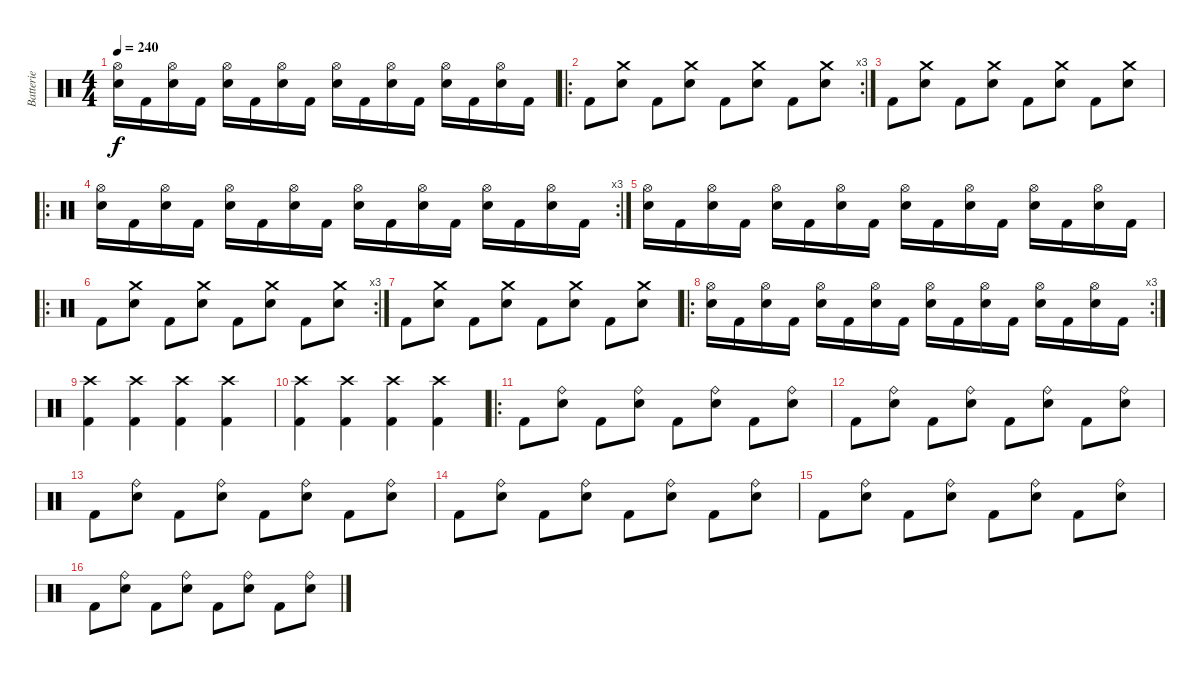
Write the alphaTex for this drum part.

\track ("Batterie" "Batterie") {instrument percussion}
\staff {score}
\articulation defaults
\ts (4 4)
\tempo 240
\clef neutral
\ks c
("Hi-Hat (open)" "Snare (hit) 2").16{dy f} "Kick (hit) 2".16 ("Hi-Hat (open)" "Snare (hit) 2").16 "Kick (hit) 2".16 ("Hi-Hat (open)" "Snare (hit) 2").16 "Kick (hit) 2".16 ("Hi-Hat (open)" "Snare (hit) 2").16 "Kick (hit) 2".16 ("Hi-Hat (open)" "Snare (hit) 2").16 "Kick (hit) 2".16 ("Hi-Hat (open)" "Snare (hit) 2").16 "Kick (hit) 2".16 ("Hi-Hat (open)" "Snare (hit) 2").16 "Kick (hit) 2".16 ("Hi-Hat (open)" "Snare (hit) 2").16 "Kick (hit) 2".16 |
\ro
\rc 3 "Kick (hit) 2".8
("Crash medium (hit)" "Snare (hit) 2").8 "Kick (hit) 2".8 ("Crash medium (hit)" "Snare (hit) 2").8 "Kick (hit) 2".8 ("Crash medium (hit)" "Snare (hit) 2").8 "Kick (hit) 2".8 ("Crash medium (hit)" "Snare (hit) 2").8 |
"Kick (hit) 2".8 ("Crash medium (hit)" "Snare (hit) 2").8 "Kick (hit) 2".8 ("Crash medium (hit)" "Snare (hit) 2").8 "Kick (hit) 2".8 ("Crash medium (hit)" "Snare (hit) 2").8 "Kick (hit) 2".8 ("Crash medium (hit)" "Snare (hit) 2").8 |
\ro
\rc 3
("Hi-Hat (open)" "Snare (hit) 2").16 "Kick (hit) 2".16 ("Hi-Hat (open)" "Snare (hit) 2").16 "Kick (hit) 2".16 ("Hi-Hat (open)" "Snare (hit) 2").16 "Kick (hit) 2".16 ("Hi-Hat (open)" "Snare (hit) 2").16 "Kick (hit) 2".16 ("Hi-Hat (open)" "Snare (hit) 2").16 "Kick (hit) 2".16 ("Hi-Hat (open)" "Snare (hit) 2").16 "Kick (hit) 2".16 ("Hi-Hat (open)" "Snare (hit) 2").16 "Kick (hit) 2".16 ("Hi-Hat (open)" "Snare (hit) 2").16 "Kick (hit) 2".16 |
("Hi-Hat (open)" "Snare (hit) 2").16 "Kick (hit) 2".16 ("Hi-Hat (open)" "Snare (hit) 2").16 "Kick (hit) 2".16 ("Hi-Hat (open)" "Snare (hit) 2").16 "Kick (hit) 2".16 ("Hi-Hat (open)" "Snare (hit) 2").16 "Kick (hit) 2".16 ("Hi-Hat (open)" "Snare (hit) 2").16 "Kick (hit) 2".16 ("Hi-Hat (open)" "Snare (hit) 2").16 "Kick (hit) 2".16 ("Hi-Hat (open)" "Snare (hit) 2").16 "Kick (hit) 2".16 ("Hi-Hat (open)" "Snare (hit) 2").16 "Kick (hit) 2".16 |
\ro
\rc 3 "Kick (hit) 2".8
("Crash medium (hit)" "Snare (hit) 2").8 "Kick (hit) 2".8 ("Crash medium (hit)" "Snare (hit) 2").8 "Kick (hit) 2".8 ("Crash medium (hit)" "Snare (hit) 2").8 "Kick (hit) 2".8 ("Crash medium (hit)" "Snare (hit) 2").8 |
"Kick (hit) 2".8 ("Crash medium (hit)" "Snare (hit) 2").8 "Kick (hit) 2".8 ("Crash medium (hit)" "Snare (hit) 2").8 "Kick (hit) 2".8 ("Crash medium (hit)" "Snare (hit) 2").8 "Kick (hit) 2".8 ("Crash medium (hit)" "Snare (hit) 2").8 |
\ro
\rc 3
("Hi-Hat (open)" "Snare (hit) 2").16 "Kick (hit) 2".16 ("Hi-Hat (open)" "Snare (hit) 2").16 "Kick (hit) 2".16 ("Hi-Hat (open)" "Snare (hit) 2").16 "Kick (hit) 2".16 ("Hi-Hat (open)" "Snare (hit) 2").16 "Kick (hit) 2".16 ("Hi-Hat (open)" "Snare (hit) 2").16 "Kick (hit) 2".16 ("Hi-Hat (open)" "Snare (hit) 2").16 "Kick (hit) 2".16 ("Hi-Hat (open)" "Snare (hit) 2").16 "Kick (hit) 2".16 ("Hi-Hat (open)" "Snare (hit) 2").16 "Kick (hit) 2".16 |
("Crash high (hit)" "Kick (hit) 2").4 ("Crash high (hit)" "Kick (hit) 2").4 ("Crash high (hit)" "Kick (hit) 2").4 ("Crash high (hit)" "Kick (hit) 2").4 |
("Crash high (hit)" "Kick (hit) 2").4 ("Crash high (hit)" "Kick (hit) 2").4 ("Crash high (hit)" "Kick (hit) 2").4 ("Crash high (hit)" "Kick (hit) 2").4 |
\ro "Kick (hit) 2".8
("Ride (bell)" "Snare (hit) 2").8 "Kick (hit) 2".8 ("Ride (bell)" "Snare (hit) 2").8 "Kick (hit) 2".8 ("Ride (bell)" "Snare (hit) 2").8 "Kick (hit) 2".8 ("Ride (bell)" "Snare (hit) 2").8 |
"Kick (hit) 2".8 ("Ride (bell)" "Snare (hit) 2").8 "Kick (hit) 2".8 ("Ride (bell)" "Snare (hit) 2").8 "Kick (hit) 2".8 ("Ride (bell)" "Snare (hit) 2").8 "Kick (hit) 2".8 ("Ride (bell)" "Snare (hit) 2").8 |
"Kick (hit) 2".8 ("Ride (bell)" "Snare (hit) 2").8 "Kick (hit) 2".8 ("Ride (bell)" "Snare (hit) 2").8 "Kick (hit) 2".8 ("Ride (bell)" "Snare (hit) 2").8 "Kick (hit) 2".8 ("Ride (bell)" "Snare (hit) 2").8 |
"Kick (hit) 2".8 ("Ride (bell)" "Snare (hit) 2").8 "Kick (hit) 2".8 ("Ride (bell)" "Snare (hit) 2").8 "Kick (hit) 2".8 ("Ride (bell)" "Snare (hit) 2").8 "Kick (hit) 2".8 ("Ride (bell)" "Snare (hit) 2").8 |
"Kick (hit) 2".8 ("Ride (bell)" "Snare (hit) 2").8 "Kick (hit) 2".8 ("Ride (bell)" "Snare (hit) 2").8 "Kick (hit) 2".8 ("Ride (bell)" "Snare (hit) 2").8 "Kick (hit) 2".8 ("Ride (bell)" "Snare (hit) 2").8 |
"Kick (hit) 2".8 ("Ride (bell)" "Snare (hit) 2").8 "Kick (hit) 2".8 ("Ride (bell)" "Snare (hit) 2").8 "Kick (hit) 2".8 ("Ride (bell)" "Snare (hit) 2").8 "Kick (hit) 2".8 ("Ride (bell)" "Snare (hit) 2").8
